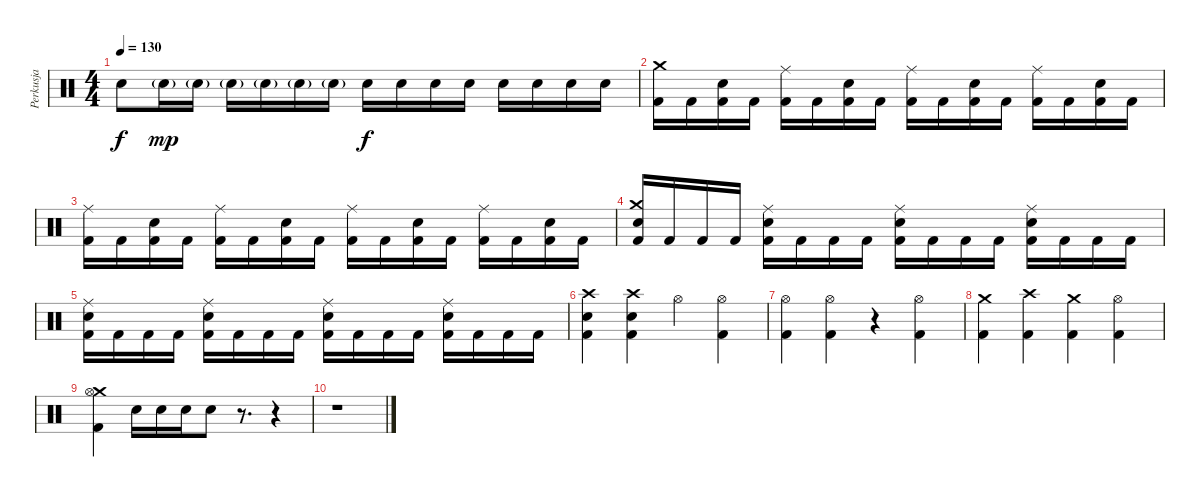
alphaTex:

\track ("Perkusja" "Perkusja") {instrument percussion}
\staff {score}
\articulation defaults
\ts (4 4)
\tempo 130
\clef neutral
\ks c "Electric Snare (hit)".8{dy f} "Electric Snare (hit)"{g}.16{dy mp} "Electric Snare (hit)"{g}.16 "Electric Snare (hit)"{g}.16 "Electric Snare (hit)"{g}.16 "Electric Snare (hit)"{g}.16 "Electric Snare (hit)"{g}.16 "Electric Snare (hit)".16{dy f} "Electric Snare (hit)".16 "Electric Snare (hit)".16 "Electric Snare (hit)".16 "Electric Snare (hit)".16 "Electric Snare (hit)".16 "Electric Snare (hit)".16 "Electric Snare (hit)".16
|
("Crash medium (hit)" "Kick (hit) 2").16 "Kick (hit) 2".16 ("Electric Snare (hit)" "Kick (hit) 2").16 "Kick (hit) 2".16 ("Ride (middle)" "Kick (hit) 2").16 "Kick (hit) 2".16 ("Electric Snare (hit)" "Kick (hit) 2").16 "Kick (hit) 2".16 ("Ride (middle)" "Kick (hit) 2").16 "Kick (hit) 2".16 ("Electric Snare (hit)" "Kick (hit) 2").16 "Kick (hit) 2".16 ("Ride (middle)" "Kick (hit) 2").16 "Kick (hit) 2".16 ("Electric Snare (hit)" "Kick (hit) 2").16 "Kick (hit) 2".16 |
("Ride (middle)" "Kick (hit) 2").16 "Kick (hit) 2".16 ("Electric Snare (hit)" "Kick (hit) 2").16 "Kick (hit) 2".16 ("Ride (middle)" "Kick (hit) 2").16 "Kick (hit) 2".16 ("Electric Snare (hit)" "Kick (hit) 2").16 "Kick (hit) 2".16 ("Ride (middle)" "Kick (hit) 2").16 "Kick (hit) 2".16 ("Electric Snare (hit)" "Kick (hit) 2").16 "Kick (hit) 2".16 ("Ride (middle)" "Kick (hit) 2").16 "Kick (hit) 2".16 ("Electric Snare (hit)" "Kick (hit) 2").16 "Kick (hit) 2".16 |
("Crash medium (hit)" "Electric Snare (hit)" "Kick (hit) 2").16 "Kick (hit) 2".16 "Kick (hit) 2".16 "Kick (hit) 2".16 ("Ride (middle)" "Electric Snare (hit)" "Kick (hit) 2").16 "Kick (hit) 2".16 "Kick (hit) 2".16 "Kick (hit) 2".16 ("Ride (middle)" "Electric Snare (hit)" "Kick (hit) 2").16 "Kick (hit) 2".16 "Kick (hit) 2".16 "Kick (hit) 2".16 ("Ride (middle)" "Electric Snare (hit)" "Kick (hit) 2").16 "Kick (hit) 2".16 "Kick (hit) 2".16 "Kick (hit) 2".16 |
("Ride (middle)" "Electric Snare (hit)" "Kick (hit) 2").16 "Kick (hit) 2".16 "Kick (hit) 2".16 "Kick (hit) 2".16 ("Ride (middle)" "Electric Snare (hit)" "Kick (hit) 2").16 "Kick (hit) 2".16 "Kick (hit) 2".16 "Kick (hit) 2".16 ("Ride (middle)" "Electric Snare (hit)" "Kick (hit) 2").16 "Kick (hit) 2".16 "Kick (hit) 2".16 "Kick (hit) 2".16 ("Ride (middle)" "Electric Snare (hit)" "Kick (hit) 2").16 "Kick (hit) 2".16 "Kick (hit) 2".16 "Kick (hit) 2".16 |
("Crash high (hit)" "Electric Snare (hit)" "Kick (hit) 2").4 ("Crash high (hit)" "Electric Snare (hit)" "Kick (hit) 2").4 "Hi-Hat (open)".4 ("Hi-Hat (open)" "Kick (hit) 2").4 |
("Hi-Hat (open)" "Kick (hit) 2").4 ("Hi-Hat (open)" "Kick (hit) 2").4 r.4 ("Hi-Hat (open)" "Kick (hit) 2").4 |
("Crash medium (hit)" "Kick (hit) 2").4 ("Crash high (hit)" "Kick (hit) 2").4 ("Crash medium (hit)" "Kick (hit) 2").4 ("Hi-Hat (open)" "Kick (hit) 2").4 |
("Crash medium (hit)" "Hi-Hat (open)" "Kick (hit) 2").4 "Electric Snare (hit)".16 "Electric Snare (hit)".16 "Electric Snare (hit)".16 "Electric Snare (hit)".8 r.8{d} r.4 |
r.1
